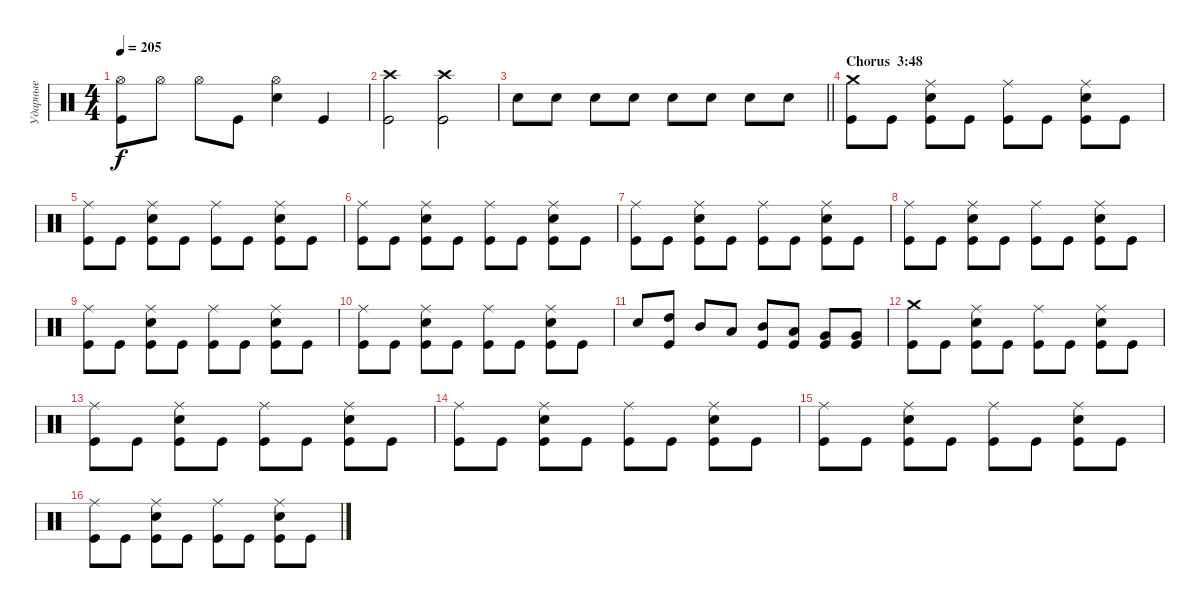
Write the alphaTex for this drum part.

\track ("Ударные" "Ударные") {instrument percussion}
\staff {score}
\articulation defaults
\ts (4 4)
\tempo 205
\clef neutral
\ks c
("Hi-Hat (open)" "Kick (hit)").8{dy f} "Hi-Hat (open)".8 "Hi-Hat (open)".8 "Kick (hit)".8 ("Hi-Hat (open)" "Snare (hit) 2").4 "Kick (hit)".4 |
("Crash high (hit)" "Kick (hit)").2 ("Crash high (hit)" "Kick (hit)").2 |
\barLineRight lightlight "Snare (hit) 2".8 "Snare (hit) 2".8 "Snare (hit) 2".8 "Snare (hit) 2".8 "Snare (hit) 2".8 "Snare (hit) 2".8 "Snare (hit) 2".8 "Snare (hit) 2".8
|
\section ("" "Chorus  3:48")
("Crash medium (hit)" "Kick (hit)").8 "Kick (hit)".8 ("Ride (middle)" "Snare (hit) 2" "Kick (hit)").8 "Kick (hit)".8 ("Ride (middle)" "Kick (hit)").8 "Kick (hit)".8 ("Ride (middle)" "Snare (hit) 2" "Kick (hit)").8 "Kick (hit)".8 |
("Ride (middle)" "Kick (hit)").8 "Kick (hit)".8 ("Ride (middle)" "Snare (hit) 2" "Kick (hit)").8 "Kick (hit)".8 ("Ride (middle)" "Kick (hit)").8 "Kick (hit)".8 ("Ride (middle)" "Snare (hit) 2" "Kick (hit)").8 "Kick (hit)".8 |
("Ride (middle)" "Kick (hit)").8 "Kick (hit)".8 ("Ride (middle)" "Snare (hit) 2" "Kick (hit)").8 "Kick (hit)".8 ("Ride (middle)" "Kick (hit)").8 "Kick (hit)".8 ("Ride (middle)" "Snare (hit) 2" "Kick (hit)").8 "Kick (hit)".8 |
("Ride (middle)" "Kick (hit)").8 "Kick (hit)".8 ("Ride (middle)" "Snare (hit) 2" "Kick (hit)").8 "Kick (hit)".8 ("Ride (middle)" "Kick (hit)").8 "Kick (hit)".8 ("Ride (middle)" "Snare (hit) 2" "Kick (hit)").8 "Kick (hit)".8 |
("Ride (middle)" "Kick (hit)").8 "Kick (hit)".8 ("Ride (middle)" "Snare (hit) 2" "Kick (hit)").8 "Kick (hit)".8 ("Ride (middle)" "Kick (hit)").8 "Kick (hit)".8 ("Ride (middle)" "Snare (hit) 2" "Kick (hit)").8 "Kick (hit)".8 |
("Ride (middle)" "Kick (hit)").8 "Kick (hit)".8 ("Ride (middle)" "Snare (hit) 2" "Kick (hit)").8 "Kick (hit)".8 ("Ride (middle)" "Kick (hit)").8 "Kick (hit)".8 ("Ride (middle)" "Snare (hit) 2" "Kick (hit)").8 "Kick (hit)".8 |
("Ride (middle)" "Kick (hit)").8 "Kick (hit)".8 ("Ride (middle)" "Snare (hit) 2" "Kick (hit)").8 "Kick (hit)".8 ("Ride (middle)" "Kick (hit)").8 "Kick (hit)".8 ("Ride (middle)" "Snare (hit) 2" "Kick (hit)").8 "Kick (hit)".8 |
"Snare (hit) 2".8 ("High Tom (hit)" "Kick (hit)").8 "Mid Tom (hit)".8 "Low Tom (hit)".8 ("Mid Tom (hit)" "Kick (hit)").8 ("Low Tom (hit)" "Kick (hit)").8 ("Very Low Tom (hit)" "Kick (hit)").8 ("Very Low Tom (hit)" "Kick (hit)").8 |
("Crash medium (hit)" "Kick (hit)").8 "Kick (hit)".8 ("Ride (middle)" "Snare (hit) 2" "Kick (hit)").8 "Kick (hit)".8 ("Ride (middle)" "Kick (hit)").8 "Kick (hit)".8 ("Ride (middle)" "Snare (hit) 2" "Kick (hit)").8 "Kick (hit)".8 |
("Ride (middle)" "Kick (hit)").8 "Kick (hit)".8 ("Ride (middle)" "Snare (hit) 2" "Kick (hit)").8 "Kick (hit)".8 ("Ride (middle)" "Kick (hit)").8 "Kick (hit)".8 ("Ride (middle)" "Snare (hit) 2" "Kick (hit)").8 "Kick (hit)".8 |
("Ride (middle)" "Kick (hit)").8 "Kick (hit)".8 ("Ride (middle)" "Snare (hit) 2" "Kick (hit)").8 "Kick (hit)".8 ("Ride (middle)" "Kick (hit)").8 "Kick (hit)".8 ("Ride (middle)" "Snare (hit) 2" "Kick (hit)").8 "Kick (hit)".8 |
("Ride (middle)" "Kick (hit)").8 "Kick (hit)".8 ("Ride (middle)" "Snare (hit) 2" "Kick (hit)").8 "Kick (hit)".8 ("Ride (middle)" "Kick (hit)").8 "Kick (hit)".8 ("Ride (middle)" "Snare (hit) 2" "Kick (hit)").8 "Kick (hit)".8 |
("Ride (middle)" "Kick (hit)").8 "Kick (hit)".8 ("Ride (middle)" "Snare (hit) 2" "Kick (hit)").8 "Kick (hit)".8 ("Ride (middle)" "Kick (hit)").8 "Kick (hit)".8 ("Ride (middle)" "Snare (hit) 2" "Kick (hit)").8 "Kick (hit)".8
